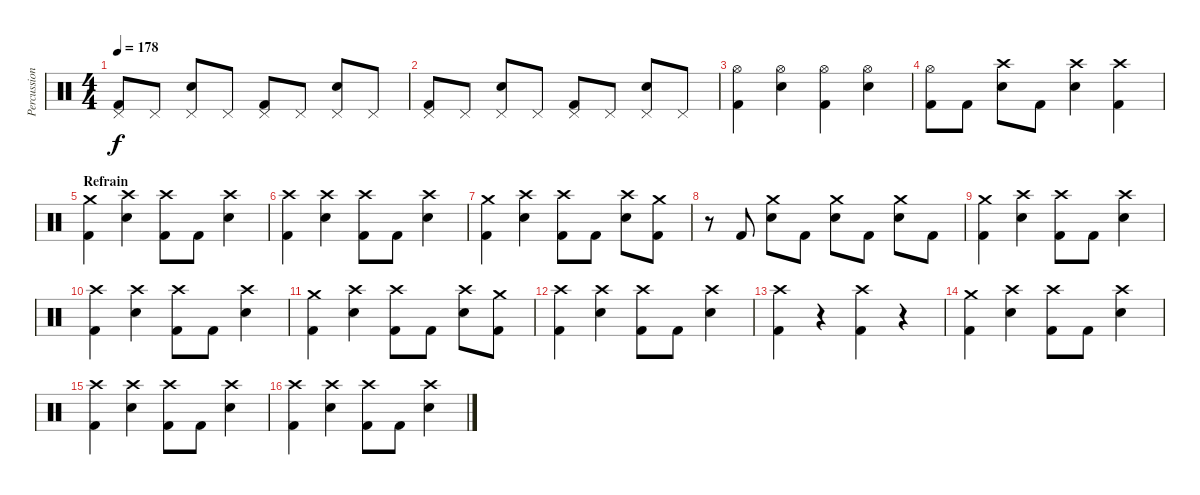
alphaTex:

\track ("Percussion" "Percussion") {instrument percussion}
\staff {score}
\articulation defaults
\ts (4 4)
\tempo 178
\clef neutral
\ks c
("Pedal Hi-Hat (hit)" "Kick (hit) 2").8{dy f} "Pedal Hi-Hat (hit)".8 ("Pedal Hi-Hat (hit)" "Snare (hit) 2").8 "Pedal Hi-Hat (hit)".8 ("Pedal Hi-Hat (hit)" "Kick (hit) 2").8 "Pedal Hi-Hat (hit)".8 ("Pedal Hi-Hat (hit)" "Snare (hit) 2").8 "Pedal Hi-Hat (hit)".8 |
("Pedal Hi-Hat (hit)" "Kick (hit) 2").8 "Pedal Hi-Hat (hit)".8 ("Pedal Hi-Hat (hit)" "Snare (hit) 2").8 "Pedal Hi-Hat (hit)".8 ("Pedal Hi-Hat (hit)" "Kick (hit) 2").8 "Pedal Hi-Hat (hit)".8 ("Pedal Hi-Hat (hit)" "Snare (hit) 2").8 "Pedal Hi-Hat (hit)".8 |
("Hi-Hat (open)" "Kick (hit) 2").4 ("Hi-Hat (open)" "Snare (hit) 2").4 ("Hi-Hat (open)" "Kick (hit) 2").4 ("Hi-Hat (open)" "Snare (hit) 2").4 |
("Hi-Hat (open)" "Kick (hit) 2").8 "Kick (hit) 2".8 ("Crash high (hit)" "Snare (hit) 2").8 "Kick (hit) 2".8 ("Crash high (hit)" "Snare (hit) 2").4 ("Crash high (hit)" "Kick (hit) 2").4 |
\section ("" "Refrain")
("Crash medium (hit)" "Kick (hit) 2").4 ("Crash high (hit)" "Snare (hit) 2").4 ("Crash high (hit)" "Kick (hit) 2").8 "Kick (hit) 2".8 ("Crash high (hit)" "Snare (hit) 2").4 |
("Crash high (hit)" "Kick (hit) 2").4 ("Crash high (hit)" "Snare (hit) 2").4 ("Crash high (hit)" "Kick (hit) 2").8 "Kick (hit) 2".8 ("Crash high (hit)" "Snare (hit) 2").4 |
("Crash medium (hit)" "Kick (hit) 2").4 ("Crash high (hit)" "Snare (hit) 2").4 ("Crash high (hit)" "Kick (hit) 2").8 "Kick (hit) 2".8 ("Crash high (hit)" "Snare (hit) 2").8 ("Crash medium (hit)" "Kick (hit) 2").8 |
r.8 "Kick (hit) 2".8 ("Crash medium (hit)" "Snare (hit) 2").8 "Kick (hit) 2".8 ("Crash medium (hit)" "Snare (hit) 2").8 "Kick (hit) 2".8 ("Crash medium (hit)" "Snare (hit) 2").8 "Kick (hit) 2".8 |
("Crash medium (hit)" "Kick (hit) 2").4 ("Crash high (hit)" "Snare (hit) 2").4 ("Crash high (hit)" "Kick (hit) 2").8 "Kick (hit) 2".8 ("Crash high (hit)" "Snare (hit) 2").4 |
("Crash high (hit)" "Kick (hit) 2").4 ("Crash high (hit)" "Snare (hit) 2").4 ("Crash high (hit)" "Kick (hit) 2").8 "Kick (hit) 2".8 ("Crash high (hit)" "Snare (hit) 2").4 |
("Crash medium (hit)" "Kick (hit) 2").4 ("Crash high (hit)" "Snare (hit) 2").4 ("Crash high (hit)" "Kick (hit) 2").8 "Kick (hit) 2".8 ("Crash high (hit)" "Snare (hit) 2").8 ("Crash medium (hit)" "Kick (hit) 2").8 |
("Crash high (hit)" "Kick (hit) 2").4 ("Crash high (hit)" "Snare (hit) 2").4 ("Crash high (hit)" "Kick (hit) 2").8 "Kick (hit) 2".8 ("Crash high (hit)" "Snare (hit) 2").4 |
("Crash high (hit)" "Kick (hit) 2").4 r.4 ("Crash high (hit)" "Kick (hit) 2").4 r.4 |
("Crash medium (hit)" "Kick (hit) 2").4 ("Crash high (hit)" "Snare (hit) 2").4 ("Crash high (hit)" "Kick (hit) 2").8 "Kick (hit) 2".8 ("Crash high (hit)" "Snare (hit) 2").4 |
("Crash high (hit)" "Kick (hit) 2").4 ("Crash high (hit)" "Snare (hit) 2").4 ("Crash high (hit)" "Kick (hit) 2").8 "Kick (hit) 2".8 ("Crash high (hit)" "Snare (hit) 2").4 |
("Crash high (hit)" "Kick (hit) 2").4 ("Crash high (hit)" "Snare (hit) 2").4 ("Crash high (hit)" "Kick (hit) 2").8 "Kick (hit) 2".8 ("Crash high (hit)" "Snare (hit) 2").4
